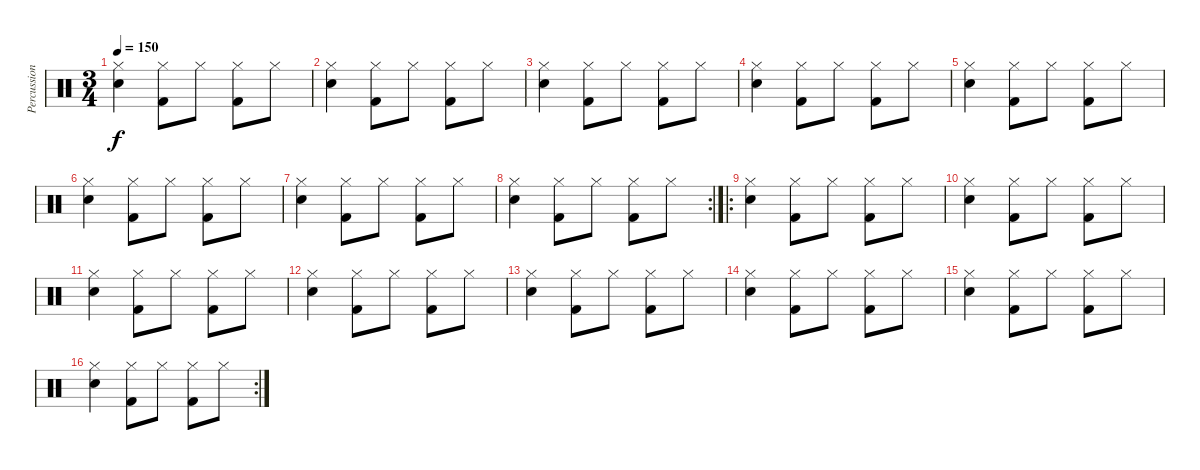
\track ("Percussions" "Percussion") {instrument percussion}
\staff {score}
\articulation defaults
\ts (3 4)
\tempo 150
\clef neutral
\ks c
("Hi-Hat (closed)" "Snare (hit) 2").4{dy f} ("Hi-Hat (closed)" "Kick (hit) 2").8 "Hi-Hat (closed)".8 ("Hi-Hat (closed)" "Kick (hit) 2").8 "Hi-Hat (closed)".8 |
("Hi-Hat (closed)" "Snare (hit) 2").4 ("Hi-Hat (closed)" "Kick (hit) 2").8 "Hi-Hat (closed)".8 ("Hi-Hat (closed)" "Kick (hit) 2").8 "Hi-Hat (closed)".8 |
("Hi-Hat (closed)" "Snare (hit) 2").4 ("Hi-Hat (closed)" "Kick (hit) 2").8 "Hi-Hat (closed)".8 ("Hi-Hat (closed)" "Kick (hit) 2").8 "Hi-Hat (closed)".8 |
("Hi-Hat (closed)" "Snare (hit) 2").4 ("Hi-Hat (closed)" "Kick (hit) 2").8 "Hi-Hat (closed)".8 ("Hi-Hat (closed)" "Kick (hit) 2").8 "Hi-Hat (closed)".8 |
("Hi-Hat (closed)" "Snare (hit) 2").4 ("Hi-Hat (closed)" "Kick (hit) 2").8 "Hi-Hat (closed)".8 ("Hi-Hat (closed)" "Kick (hit) 2").8 "Hi-Hat (closed)".8 |
("Hi-Hat (closed)" "Snare (hit) 2").4 ("Hi-Hat (closed)" "Kick (hit) 2").8 "Hi-Hat (closed)".8 ("Hi-Hat (closed)" "Kick (hit) 2").8 "Hi-Hat (closed)".8 |
("Hi-Hat (closed)" "Snare (hit) 2").4 ("Hi-Hat (closed)" "Kick (hit) 2").8 "Hi-Hat (closed)".8 ("Hi-Hat (closed)" "Kick (hit) 2").8 "Hi-Hat (closed)".8 |
\rc 2
("Hi-Hat (closed)" "Snare (hit) 2").4 ("Hi-Hat (closed)" "Kick (hit) 2").8 "Hi-Hat (closed)".8 ("Hi-Hat (closed)" "Kick (hit) 2").8 "Hi-Hat (closed)".8 |
\ro
("Hi-Hat (closed)" "Snare (hit) 2").4 ("Hi-Hat (closed)" "Kick (hit) 2").8 "Hi-Hat (closed)".8 ("Hi-Hat (closed)" "Kick (hit) 2").8 "Hi-Hat (closed)".8 |
("Hi-Hat (closed)" "Snare (hit) 2").4 ("Hi-Hat (closed)" "Kick (hit) 2").8 "Hi-Hat (closed)".8 ("Hi-Hat (closed)" "Kick (hit) 2").8 "Hi-Hat (closed)".8 |
("Hi-Hat (closed)" "Snare (hit) 2").4 ("Hi-Hat (closed)" "Kick (hit) 2").8 "Hi-Hat (closed)".8 ("Hi-Hat (closed)" "Kick (hit) 2").8 "Hi-Hat (closed)".8 |
("Hi-Hat (closed)" "Snare (hit) 2").4 ("Hi-Hat (closed)" "Kick (hit) 2").8 "Hi-Hat (closed)".8 ("Hi-Hat (closed)" "Kick (hit) 2").8 "Hi-Hat (closed)".8 |
("Hi-Hat (closed)" "Snare (hit) 2").4 ("Hi-Hat (closed)" "Kick (hit) 2").8 "Hi-Hat (closed)".8 ("Hi-Hat (closed)" "Kick (hit) 2").8 "Hi-Hat (closed)".8 |
("Hi-Hat (closed)" "Snare (hit) 2").4 ("Hi-Hat (closed)" "Kick (hit) 2").8 "Hi-Hat (closed)".8 ("Hi-Hat (closed)" "Kick (hit) 2").8 "Hi-Hat (closed)".8 |
("Hi-Hat (closed)" "Snare (hit) 2").4 ("Hi-Hat (closed)" "Kick (hit) 2").8 "Hi-Hat (closed)".8 ("Hi-Hat (closed)" "Kick (hit) 2").8 "Hi-Hat (closed)".8 |
\rc 2
("Hi-Hat (closed)" "Snare (hit) 2").4 ("Hi-Hat (closed)" "Kick (hit) 2").8 "Hi-Hat (closed)".8 ("Hi-Hat (closed)" "Kick (hit) 2").8 "Hi-Hat (closed)".8
